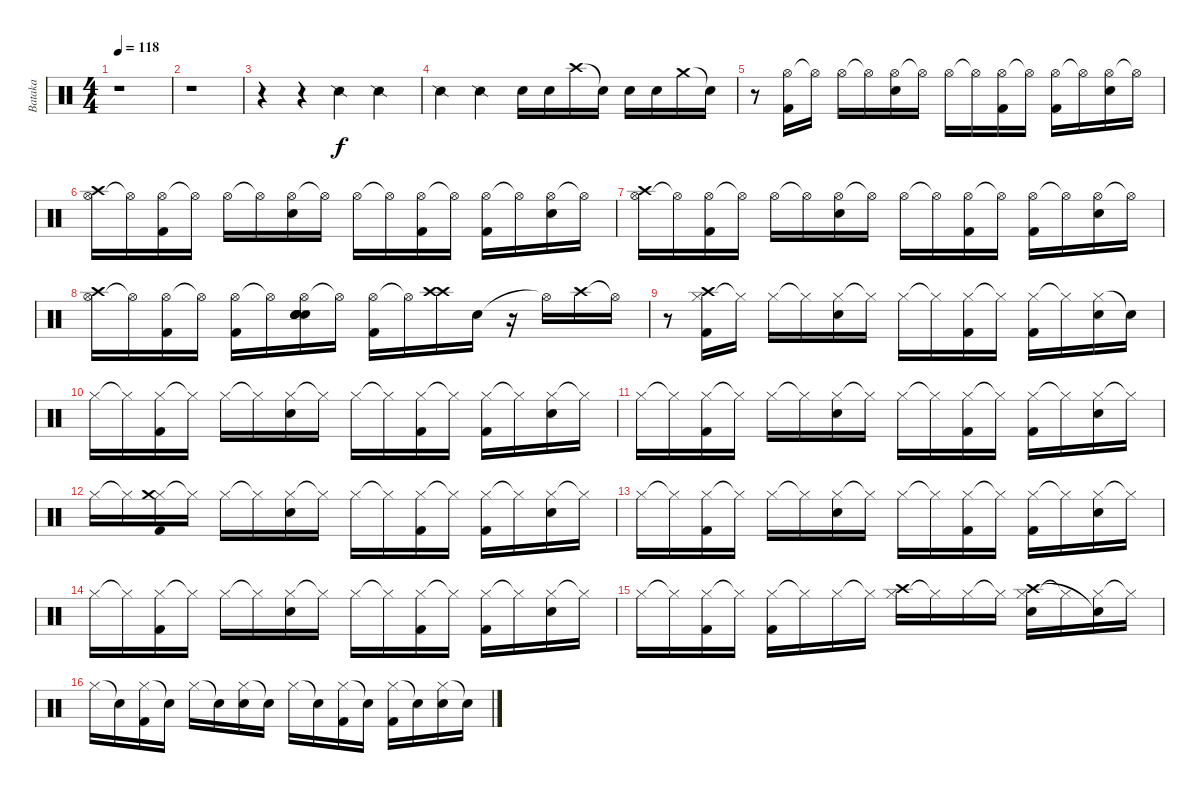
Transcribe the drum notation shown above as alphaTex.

\track ("Bataka" "Bataka") {instrument percussion}
\staff {score}
\articulation defaults
\ts (4 4)
\tempo 118
\clef neutral
\ks c
r.1{dy f} |
r.1 |
r.4 r.4 "Snare (side stick) 2".4 "Snare (side stick) 2".4 |
"Snare (side stick) 2".4 "Snare (side stick) 2".4 "Snare (hit) 2".16 "Snare (hit) 2".16 "Crash high (hit)".16 "Snare (hit)"{t}.16 "Snare (hit) 2".16 "Snare (hit) 2".16 "Crash medium (hit)".16 "Snare (hit)"{t}.16 |
r.8 ("Hi-Hat (open)" "Kick (hit) 2").16 "Hi-Hat (open)"{t}.16 "Hi-Hat (open)".16 "Hi-Hat (open)"{t}.16 ("Hi-Hat (open)" "Snare (hit) 2").16 "Hi-Hat (open)"{t}.16 "Hi-Hat (open)".16 "Hi-Hat (open)"{t}.16 ("Hi-Hat (open)" "Kick (hit) 2").16 "Hi-Hat (open)"{t}.16 ("Hi-Hat (open)" "Kick (hit) 2").16 "Hi-Hat (open)"{t}.16 ("Hi-Hat (open)" "Snare (hit) 2").16 "Hi-Hat (open)"{t}.16 |
("Hi-Hat (open)" "Crash high (hit)").16 "Hi-Hat (open)"{t}.16 ("Hi-Hat (open)" "Kick (hit) 2").16 "Hi-Hat (open)"{t}.16 "Hi-Hat (open)".16 "Hi-Hat (open)"{t}.16 ("Hi-Hat (open)" "Snare (hit) 2").16 "Hi-Hat (open)"{t}.16 "Hi-Hat (open)".16 "Hi-Hat (open)"{t}.16 ("Hi-Hat (open)" "Kick (hit) 2").16 "Hi-Hat (open)"{t}.16 ("Hi-Hat (open)" "Kick (hit) 2").16 "Hi-Hat (open)"{t}.16 ("Hi-Hat (open)" "Snare (hit) 2").16 "Hi-Hat (open)"{t}.16 |
("Hi-Hat (open)" "Crash high (hit)").16 "Hi-Hat (open)"{t}.16 ("Hi-Hat (open)" "Kick (hit) 2").16 "Hi-Hat (open)"{t}.16 "Hi-Hat (open)".16 "Hi-Hat (open)"{t}.16 ("Hi-Hat (open)" "Snare (hit) 2").16 "Hi-Hat (open)"{t}.16 "Hi-Hat (open)".16 "Hi-Hat (open)"{t}.16 ("Hi-Hat (open)" "Kick (hit) 2").16 "Hi-Hat (open)"{t}.16 ("Hi-Hat (open)" "Kick (hit) 2").16 "Hi-Hat (open)"{t}.16 ("Hi-Hat (open)" "Snare (hit) 2").16 "Hi-Hat (open)"{t}.16 |
("Hi-Hat (open)" "Crash high (hit)").16 "Hi-Hat (open)"{t}.16 ("Hi-Hat (open)" "Kick (hit) 2").16 "Hi-Hat (open)"{t}.16 ("Hi-Hat (open)" "Kick (hit) 2").16 "Hi-Hat (open)"{t}.16 ("Hi-Hat (open)" "Snare (hit) 2" "Snare (hit) 2" "Snare (hit) 2" "Snare (hit) 2" "Snare (hit) 2").16 "Hi-Hat (open)"{t}.16 ("Hi-Hat (open)" "Kick (hit) 2").16 "Hi-Hat (open)"{t}.16 ("Crash high (hit)" "Crash high (hit)").16 "Snare (hit)"{x}.16 r.16 "Hi-Hat (open)"{t}.16 "Crash high (hit)".16 "Hi-Hat (open)"{t}.16 |
r.8 ("Hi-Hat (closed)" "Kick (hit) 2" "Crash high (hit)").16 "Hi-Hat (closed)"{t}.16 "Hi-Hat (closed)".16 "Hi-Hat (closed)"{t}.16 ("Hi-Hat (closed)" "Snare (hit) 2").16 "Hi-Hat (closed)"{t}.16 "Hi-Hat (closed)".16 "Hi-Hat (closed)"{t}.16 ("Hi-Hat (closed)" "Kick (hit) 2").16 "Hi-Hat (closed)"{t}.16 ("Hi-Hat (closed)" "Kick (hit) 2").16 "Hi-Hat (closed)"{t}.16 ("Hi-Hat (closed)" "Snare (hit) 2").16 "Snare (hit)"{t}.16 |
"Hi-Hat (closed)".16 "Hi-Hat (closed)"{t}.16 ("Hi-Hat (closed)" "Kick (hit) 2").16 "Hi-Hat (closed)"{t}.16 "Hi-Hat (closed)".16 "Hi-Hat (closed)"{t}.16 ("Hi-Hat (closed)" "Snare (hit) 2").16 "Hi-Hat (closed)"{t}.16 "Hi-Hat (closed)".16 "Hi-Hat (closed)"{t}.16 ("Hi-Hat (closed)" "Kick (hit) 2").16 "Hi-Hat (closed)"{t}.16 ("Hi-Hat (closed)" "Kick (hit) 2").16 "Hi-Hat (closed)"{t}.16 ("Hi-Hat (closed)" "Snare (hit) 2").16 "Hi-Hat (closed)"{t}.16 |
"Hi-Hat (closed)".16 "Hi-Hat (closed)"{t}.16 ("Hi-Hat (closed)" "Kick (hit) 2").16 "Hi-Hat (closed)"{t}.16 "Hi-Hat (closed)".16 "Hi-Hat (closed)"{t}.16 ("Hi-Hat (closed)" "Snare (hit) 2").16 "Hi-Hat (closed)"{t}.16 "Hi-Hat (closed)".16 "Hi-Hat (closed)"{t}.16 ("Hi-Hat (closed)" "Kick (hit) 2").16 "Hi-Hat (closed)"{t}.16 ("Hi-Hat (closed)" "Kick (hit) 2").16 "Hi-Hat (closed)"{t}.16 ("Hi-Hat (closed)" "Snare (hit) 2").16 "Hi-Hat (closed)"{t}.16 |
"Hi-Hat (closed)".16 "Hi-Hat (closed)"{t}.16 ("Hi-Hat (closed)" "Kick (hit) 2" "Crash medium (hit)").16 "Hi-Hat (closed)"{t}.16 "Hi-Hat (closed)".16 "Hi-Hat (closed)"{t}.16 ("Hi-Hat (closed)" "Snare (hit) 2").16 "Hi-Hat (closed)"{t}.16 "Hi-Hat (closed)".16 "Hi-Hat (closed)"{t}.16 ("Hi-Hat (closed)" "Kick (hit) 2").16 "Hi-Hat (closed)"{t}.16 ("Hi-Hat (closed)" "Kick (hit) 2").16 "Hi-Hat (closed)"{t}.16 ("Hi-Hat (closed)" "Snare (hit) 2").16 "Hi-Hat (closed)"{t}.16 |
"Hi-Hat (closed)".16 "Hi-Hat (closed)"{t}.16 ("Hi-Hat (closed)" "Kick (hit) 2").16 "Hi-Hat (closed)"{t}.16 "Hi-Hat (closed)".16 "Hi-Hat (closed)"{t}.16 ("Hi-Hat (closed)" "Snare (hit) 2").16 "Hi-Hat (closed)"{t}.16 "Hi-Hat (closed)".16 "Hi-Hat (closed)"{t}.16 ("Hi-Hat (closed)" "Kick (hit) 2").16 "Hi-Hat (closed)"{t}.16 ("Hi-Hat (closed)" "Kick (hit) 2").16 "Hi-Hat (closed)"{t}.16 ("Hi-Hat (closed)" "Snare (hit) 2").16 "Hi-Hat (closed)"{t}.16 |
"Hi-Hat (closed)".16 "Hi-Hat (closed)"{t}.16 ("Hi-Hat (closed)" "Kick (hit) 2").16 "Hi-Hat (closed)"{t}.16 "Hi-Hat (closed)".16 "Hi-Hat (closed)"{t}.16 ("Hi-Hat (closed)" "Snare (hit) 2").16 "Hi-Hat (closed)"{t}.16 "Hi-Hat (closed)".16 "Hi-Hat (closed)"{t}.16 ("Hi-Hat (closed)" "Kick (hit) 2").16 "Hi-Hat (closed)"{t}.16 ("Hi-Hat (closed)" "Kick (hit) 2").16 "Hi-Hat (closed)"{t}.16 ("Hi-Hat (closed)" "Snare (hit) 2").16 "Hi-Hat (closed)"{t}.16 |
"Hi-Hat (closed)".16 "Hi-Hat (closed)"{t}.16 ("Hi-Hat (closed)" "Kick (hit) 2").16 "Hi-Hat (closed)"{t}.16 ("Hi-Hat (closed)" "Kick (hit) 2").16 "Hi-Hat (closed)"{t}.16 "Hi-Hat (closed)".16 "Hi-Hat (closed)"{t}.16 ("Hi-Hat (closed)" "Crash high (hit)").16 "Hi-Hat (closed)"{t}.16 "Hi-Hat (closed)".16 "Hi-Hat (closed)"{t}.16 ("Hi-Hat (closed)" "Crash high (hit)" "Snare (hit) 2").16 "Hi-Hat (closed)"{t}.16 ("Hi-Hat (closed)" "Snare (hit)"{t}).16 "Hi-Hat (closed)"{t}.16 |
"Hi-Hat (closed)".16 "Snare (hit)"{t}.16 ("Hi-Hat (closed)" "Kick (hit) 2").16 "Snare (hit)"{t}.16 "Hi-Hat (closed)".16 "Snare (hit)"{t}.16 ("Hi-Hat (closed)" "Snare (hit) 2").16 "Snare (hit)"{t}.16 "Hi-Hat (closed)".16 "Snare (hit)"{t}.16 ("Hi-Hat (closed)" "Kick (hit) 2").16 "Snare (hit)"{t}.16 ("Hi-Hat (closed)" "Kick (hit) 2").16 "Snare (hit)"{t}.16 ("Hi-Hat (closed)" "Snare (hit) 2").16 "Snare (hit)"{t}.16
